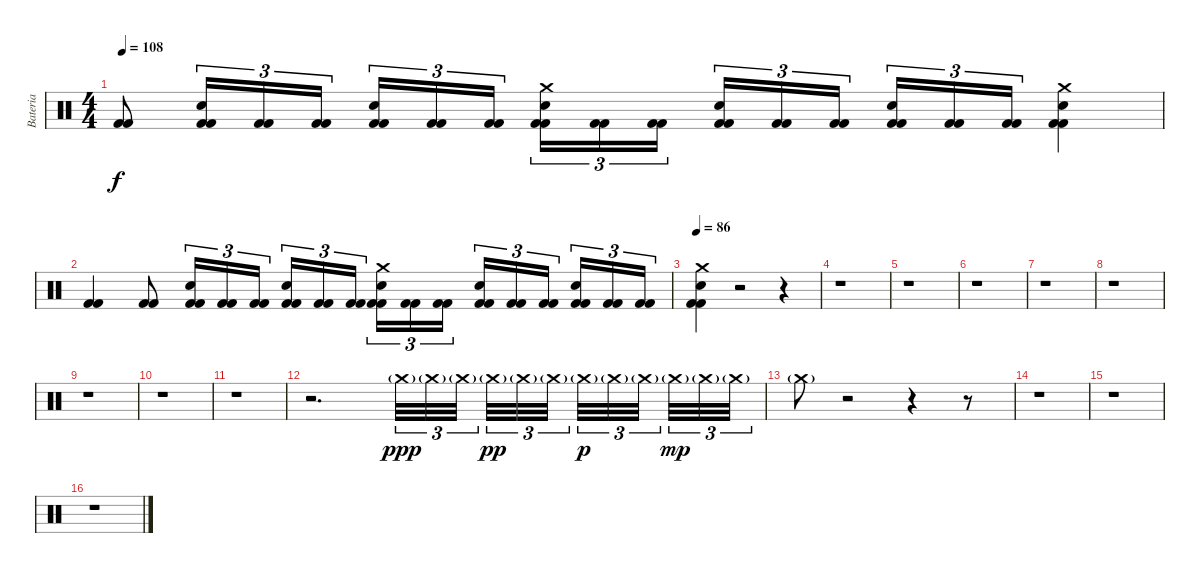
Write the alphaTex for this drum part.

\track ("Bateria" "Bateria") {instrument percussion}
\staff {score}
\articulation defaults
\ts (4 4)
\tempo 108
\clef neutral
\ks c
("Kick (hit) 2" "Kick (hit) 2").8{dy f} ("Kick (hit) 2" "Kick (hit) 2" "Snare (hit) 2").16{tu (3 2)} ("Kick (hit) 2" "Kick (hit) 2").16{tu (3 2)} ("Kick (hit) 2" "Kick (hit) 2").16{tu (3 2)} ("Kick (hit) 2" "Kick (hit) 2" "Snare (hit) 2").16{tu (3 2)} ("Kick (hit) 2" "Kick (hit) 2").16{tu (3 2)} ("Kick (hit) 2" "Kick (hit) 2").16{tu (3 2)} ("Kick (hit) 2" "Kick (hit) 2" "Snare (hit) 2" "Crash medium (hit)").16{tu (3 2)} ("Kick (hit) 2" "Kick (hit) 2").16{tu (3 2)} ("Kick (hit) 2" "Kick (hit) 2").16{tu (3 2)} ("Kick (hit) 2" "Kick (hit) 2" "Snare (hit) 2").16{tu (3 2)} ("Kick (hit) 2" "Kick (hit) 2").16{tu (3 2)} ("Kick (hit) 2" "Kick (hit) 2").16{tu (3 2)} ("Kick (hit) 2" "Kick (hit) 2" "Snare (hit) 2").16{tu (3 2)} ("Kick (hit) 2" "Kick (hit) 2").16{tu (3 2)} ("Kick (hit) 2" "Kick (hit) 2").16{tu (3 2)} ("Kick (hit) 2" "Kick (hit) 2" "Snare (hit) 2" "Crash medium (hit)").4 |
("Kick (hit) 2" "Kick (hit) 2").4 ("Kick (hit) 2" "Kick (hit) 2").8 ("Kick (hit) 2" "Kick (hit) 2" "Snare (hit) 2").16{tu (3 2)} ("Kick (hit) 2" "Kick (hit) 2").16{tu (3 2)} ("Kick (hit) 2" "Kick (hit) 2").16{tu (3 2)} ("Kick (hit) 2" "Kick (hit) 2" "Snare (hit) 2").16{tu (3 2)} ("Kick (hit) 2" "Kick (hit) 2").16{tu (3 2)} ("Kick (hit) 2" "Kick (hit) 2").16{tu (3 2)} ("Kick (hit) 2" "Kick (hit) 2" "Snare (hit) 2" "Crash medium (hit)").16{tu (3 2)} ("Kick (hit) 2" "Kick (hit) 2").16{tu (3 2)} ("Kick (hit) 2" "Kick (hit) 2").16{tu (3 2)} ("Kick (hit) 2" "Kick (hit) 2" "Snare (hit) 2").16{tu (3 2)} ("Kick (hit) 2" "Kick (hit) 2").16{tu (3 2)} ("Kick (hit) 2" "Kick (hit) 2").16{tu (3 2)} ("Kick (hit) 2" "Kick (hit) 2" "Snare (hit) 2").16{tu (3 2)} ("Kick (hit) 2" "Kick (hit) 2").16{tu (3 2)} ("Kick (hit) 2" "Kick (hit) 2").16{tu (3 2)} |
\tempo 86
("Kick (hit) 2" "Kick (hit) 2" "Snare (hit) 2" "Crash medium (hit)").4 r.2 r.4 |
r.1 |
r.1 |
r.1 |
r.1 |
r.1 |
r.1 |
r.1 |
r.1 |
r.2{d} "Crash medium (hit)"{g}.32{tu (3 2) dy ppp} "Crash medium (hit)"{g}.32{tu (3 2)} "Crash medium (hit)"{g}.32{tu (3 2)} "Crash medium (hit)"{g}.32{tu (3 2) dy pp} "Crash medium (hit)"{g}.32{tu (3 2)} "Crash medium (hit)"{g}.32{tu (3 2)} "Crash medium (hit)"{g}.32{tu (3 2) dy p} "Crash medium (hit)"{g}.32{tu (3 2)} "Crash medium (hit)"{g}.32{tu (3 2)} "Crash medium (hit)"{g}.32{tu (3 2) dy mp} "Crash medium (hit)"{g}.32{tu (3 2)} "Crash medium (hit)"{g}.32{tu (3 2)} |
"Crash medium (hit)"{g}.8 r.2 r.4 r.8 |
r.1 |
r.1 |
r.1
